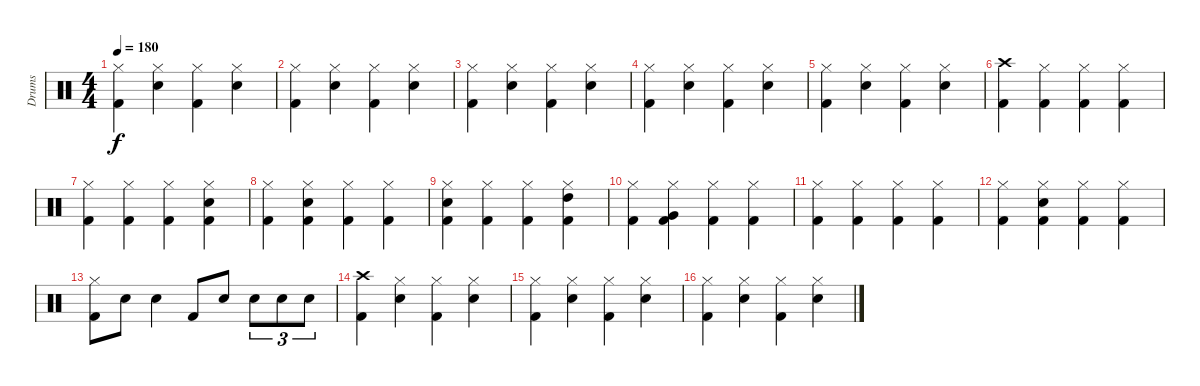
\track ("Drums" "Drums") {instrument percussion}
\staff {score}
\articulation defaults
\ts (4 4)
\tempo 180
\clef neutral
\ks c
("Hi-Hat (closed)" "Kick (hit) 2").4{dy f} ("Hi-Hat (closed)" "Snare (hit) 2").4 ("Hi-Hat (closed)" "Kick (hit) 2").4 ("Hi-Hat (closed)" "Snare (hit) 2").4 |
("Hi-Hat (closed)" "Kick (hit) 2").4 ("Hi-Hat (closed)" "Snare (hit) 2").4 ("Hi-Hat (closed)" "Kick (hit) 2").4 ("Hi-Hat (closed)" "Snare (hit) 2").4 |
("Hi-Hat (closed)" "Kick (hit) 2").4 ("Hi-Hat (closed)" "Snare (hit) 2").4 ("Hi-Hat (closed)" "Kick (hit) 2").4 ("Hi-Hat (closed)" "Snare (hit) 2").4 |
("Hi-Hat (closed)" "Kick (hit) 2").4 ("Hi-Hat (closed)" "Snare (hit) 2").4 ("Hi-Hat (closed)" "Kick (hit) 2").4 ("Hi-Hat (closed)" "Snare (hit) 2").4 |
("Hi-Hat (closed)" "Kick (hit) 2").4 ("Hi-Hat (closed)" "Snare (hit) 2").4 ("Hi-Hat (closed)" "Kick (hit) 2").4 ("Hi-Hat (closed)" "Snare (hit) 2").4 |
("Crash high (hit)" "Kick (hit) 2").4 ("Hi-Hat (closed)" "Kick (hit) 2").4 ("Hi-Hat (closed)" "Kick (hit) 2").4 ("Hi-Hat (closed)" "Kick (hit) 2").4 |
("Hi-Hat (closed)" "Kick (hit) 2").4 ("Hi-Hat (closed)" "Kick (hit) 2").4 ("Hi-Hat (closed)" "Kick (hit) 2").4 ("Hi-Hat (closed)" "Snare (hit) 2" "Kick (hit) 2").4 |
("Hi-Hat (closed)" "Kick (hit) 2").4 ("Hi-Hat (closed)" "Snare (hit) 2" "Kick (hit) 2").4 ("Hi-Hat (closed)" "Kick (hit) 2").4 ("Hi-Hat (closed)" "Kick (hit) 2").4 |
("Hi-Hat (closed)" "Snare (hit) 2" "Kick (hit) 2").4 ("Hi-Hat (closed)" "Kick (hit) 2").4 ("Hi-Hat (closed)" "Kick (hit) 2").4 ("Hi-Hat (closed)" "High Tom (hit)" "Kick (hit) 2").4 |
("Hi-Hat (closed)" "Kick (hit) 2").4 ("Hi-Hat (closed)" "Very Low Tom (hit)" "Kick (hit) 2").4 ("Hi-Hat (closed)" "Kick (hit) 2").4 ("Hi-Hat (closed)" "Kick (hit) 2").4 |
("Hi-Hat (closed)" "Kick (hit) 2").4 ("Hi-Hat (closed)" "Kick (hit) 2").4 ("Hi-Hat (closed)" "Kick (hit) 2").4 ("Hi-Hat (closed)" "Kick (hit) 2").4 |
("Hi-Hat (closed)" "Kick (hit) 2").4 ("Hi-Hat (closed)" "Snare (hit) 2" "Kick (hit) 2").4 ("Hi-Hat (closed)" "Kick (hit) 2").4 ("Hi-Hat (closed)" "Kick (hit) 2").4 |
("Hi-Hat (closed)" "Kick (hit) 2").8 "Snare (hit) 2".8 "Snare (hit) 2".4 "Kick (hit) 2".8 "Snare (hit) 2".8 "Snare (hit) 2".8{tu (3 2)} "Snare (hit) 2".8{tu (3 2)} "Snare (hit) 2".8{tu (3 2)} |
("Crash high (hit)" "Kick (hit) 2").4 ("Hi-Hat (closed)" "Snare (hit) 2").4 ("Hi-Hat (closed)" "Kick (hit) 2").4 ("Hi-Hat (closed)" "Snare (hit) 2").4 |
("Hi-Hat (closed)" "Kick (hit) 2").4 ("Hi-Hat (closed)" "Snare (hit) 2").4 ("Hi-Hat (closed)" "Kick (hit) 2").4 ("Hi-Hat (closed)" "Snare (hit) 2").4 |
("Hi-Hat (closed)" "Kick (hit) 2").4 ("Hi-Hat (closed)" "Snare (hit) 2").4 ("Hi-Hat (closed)" "Kick (hit) 2").4 ("Hi-Hat (closed)" "Snare (hit) 2").4
